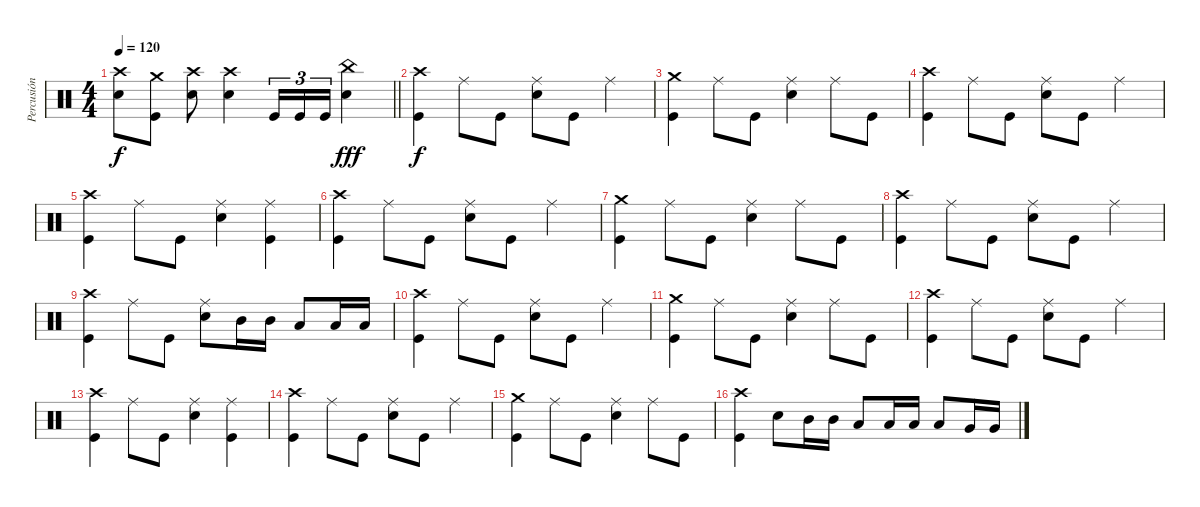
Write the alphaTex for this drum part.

\track ("Percusión" "Percusión") {instrument percussion}
\staff {score}
\articulation defaults
\ts (4 4)
\tempo 120
\clef neutral
\barLineRight lightlight
\ks c
("Crash high (hit)" "Electric Snare (hit)").8{dy f} ("Crash medium (hit)" "Kick (hit)").8 ("Crash high (hit)" "Electric Snare (hit)").8 ("Crash high (hit)" "Electric Snare (hit)").4 "Kick (hit)".16{tu (3 2)} "Kick (hit)".16{tu (3 2)} "Kick (hit)".16{tu (3 2)} ("China (hit)" "Electric Snare (hit)").4{dy fff} |
("Crash high (hit)" "Kick (hit)").4{dy f} "Ride (middle)".8 "Kick (hit)".8 ("Ride (middle)" "Electric Snare (hit)").8 "Kick (hit)".8 "Ride (middle)".4 |
("Crash medium (hit)" "Kick (hit)").4 "Ride (middle)".8 "Kick (hit)".8 ("Ride (middle)" "Electric Snare (hit)").4 "Ride (middle)".8 "Kick (hit)".8 |
("Crash high (hit)" "Kick (hit)").4 "Ride (middle)".8 "Kick (hit)".8 ("Ride (middle)" "Electric Snare (hit)").8 "Kick (hit)".8 "Ride (middle)".4 |
("Crash high (hit)" "Kick (hit)").4 "Ride (middle)".8 "Kick (hit)".8 ("Ride (middle)" "Electric Snare (hit)").4 ("Ride (middle)" "Kick (hit)").4 |
("Crash high (hit)" "Kick (hit)").4 "Ride (middle)".8 "Kick (hit)".8 ("Ride (middle)" "Electric Snare (hit)").8 "Kick (hit)".8 "Ride (middle)".4 |
("Crash medium (hit)" "Kick (hit)").4 "Ride (middle)".8 "Kick (hit)".8 ("Ride (middle)" "Electric Snare (hit)").4 "Ride (middle)".8 "Kick (hit)".8 |
("Crash high (hit)" "Kick (hit)").4 "Ride (middle)".8 "Kick (hit)".8 ("Ride (middle)" "Electric Snare (hit)").8 "Kick (hit)".8 "Ride (middle)".4 |
("Crash high (hit)" "Kick (hit)").4 "Ride (middle)".8 "Kick (hit)".8 ("Ride (middle)" "Electric Snare (hit)").8 "Mid Tom (hit)".16 "Mid Tom (hit)".16 "Low Tom (hit)".8 "Low Tom (hit)".16 "Low Tom (hit)".16 |
("Crash high (hit)" "Kick (hit)").4 "Ride (middle)".8 "Kick (hit)".8 ("Ride (middle)" "Electric Snare (hit)").8 "Kick (hit)".8 "Ride (middle)".4 |
("Crash medium (hit)" "Kick (hit)").4 "Ride (middle)".8 "Kick (hit)".8 ("Ride (middle)" "Electric Snare (hit)").4 "Ride (middle)".8 "Kick (hit)".8 |
("Crash high (hit)" "Kick (hit)").4 "Ride (middle)".8 "Kick (hit)".8 ("Ride (middle)" "Electric Snare (hit)").8 "Kick (hit)".8 "Ride (middle)".4 |
("Crash high (hit)" "Kick (hit)").4 "Ride (middle)".8 "Kick (hit)".8 ("Ride (middle)" "Electric Snare (hit)").4 ("Ride (middle)" "Kick (hit)").4 |
("Crash high (hit)" "Kick (hit)").4 "Ride (middle)".8 "Kick (hit)".8 ("Ride (middle)" "Electric Snare (hit)").8 "Kick (hit)".8 "Ride (middle)".4 |
("Crash medium (hit)" "Kick (hit)").4 "Ride (middle)".8 "Kick (hit)".8 ("Ride (middle)" "Electric Snare (hit)").4 "Ride (middle)".8 "Kick (hit)".8 |
("Crash high (hit)" "Kick (hit)").4 "Electric Snare (hit)".8 "Mid Tom (hit)".16 "Mid Tom (hit)".16 "Low Tom (hit)".8 "Low Tom (hit)".16 "Low Tom (hit)".16 "Low Tom (hit)".8 "Very Low Tom (hit)".16 "Very Low Tom (hit)".16
